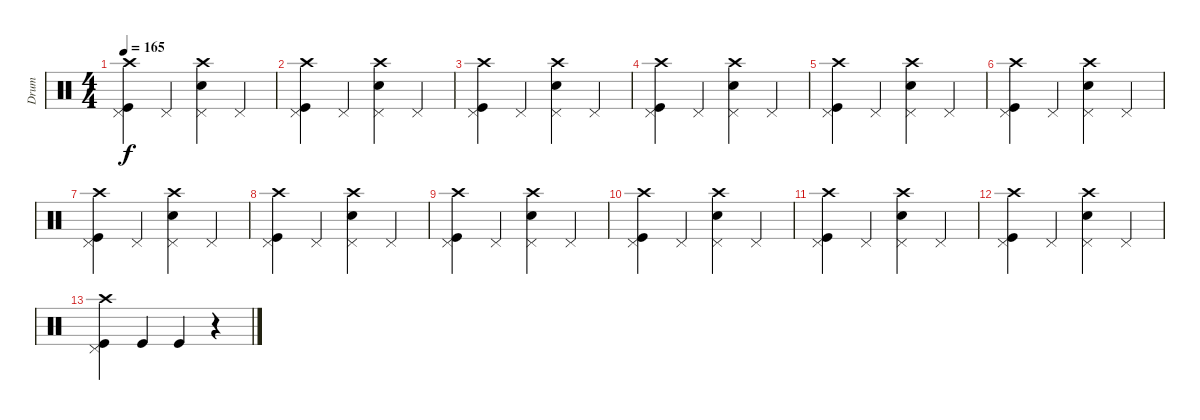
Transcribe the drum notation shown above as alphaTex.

\track ("Drum" "Drum") {instrument percussion}
\staff {score}
\articulation defaults
\ts (4 4)
\tempo 165
\clef neutral
\ks c
("Crash high (hit)" "Pedal Hi-Hat (hit)" "Kick (hit)").4{dy f} "Pedal Hi-Hat (hit)".4 ("Crash high (hit)" "Pedal Hi-Hat (hit)" "Electric Snare (hit)").4 "Pedal Hi-Hat (hit)".4 |
("Crash high (hit)" "Pedal Hi-Hat (hit)" "Kick (hit)").4 "Pedal Hi-Hat (hit)".4 ("Crash high (hit)" "Pedal Hi-Hat (hit)" "Electric Snare (hit)").4 "Pedal Hi-Hat (hit)".4 |
("Crash high (hit)" "Pedal Hi-Hat (hit)" "Kick (hit)").4 "Pedal Hi-Hat (hit)".4 ("Crash high (hit)" "Pedal Hi-Hat (hit)" "Electric Snare (hit)").4 "Pedal Hi-Hat (hit)".4 |
("Crash high (hit)" "Pedal Hi-Hat (hit)" "Kick (hit)").4 "Pedal Hi-Hat (hit)".4 ("Crash high (hit)" "Pedal Hi-Hat (hit)" "Electric Snare (hit)").4 "Pedal Hi-Hat (hit)".4 |
("Crash high (hit)" "Pedal Hi-Hat (hit)" "Kick (hit)").4 "Pedal Hi-Hat (hit)".4 ("Crash high (hit)" "Pedal Hi-Hat (hit)" "Electric Snare (hit)").4 "Pedal Hi-Hat (hit)".4 |
("Crash high (hit)" "Pedal Hi-Hat (hit)" "Kick (hit)").4 "Pedal Hi-Hat (hit)".4 ("Crash high (hit)" "Pedal Hi-Hat (hit)" "Electric Snare (hit)").4 "Pedal Hi-Hat (hit)".4 |
("Crash high (hit)" "Pedal Hi-Hat (hit)" "Kick (hit)").4 "Pedal Hi-Hat (hit)".4 ("Crash high (hit)" "Pedal Hi-Hat (hit)" "Electric Snare (hit)").4 "Pedal Hi-Hat (hit)".4 |
("Crash high (hit)" "Pedal Hi-Hat (hit)" "Kick (hit)").4 "Pedal Hi-Hat (hit)".4 ("Crash high (hit)" "Pedal Hi-Hat (hit)" "Electric Snare (hit)").4 "Pedal Hi-Hat (hit)".4 |
("Crash high (hit)" "Pedal Hi-Hat (hit)" "Kick (hit)").4 "Pedal Hi-Hat (hit)".4 ("Crash high (hit)" "Pedal Hi-Hat (hit)" "Electric Snare (hit)").4 "Pedal Hi-Hat (hit)".4 |
("Crash high (hit)" "Pedal Hi-Hat (hit)" "Kick (hit)").4 "Pedal Hi-Hat (hit)".4 ("Crash high (hit)" "Pedal Hi-Hat (hit)" "Electric Snare (hit)").4 "Pedal Hi-Hat (hit)".4 |
("Crash high (hit)" "Pedal Hi-Hat (hit)" "Kick (hit)").4 "Pedal Hi-Hat (hit)".4 ("Crash high (hit)" "Pedal Hi-Hat (hit)" "Electric Snare (hit)").4 "Pedal Hi-Hat (hit)".4 |
("Crash high (hit)" "Pedal Hi-Hat (hit)" "Kick (hit)").4 "Pedal Hi-Hat (hit)".4 ("Crash high (hit)" "Pedal Hi-Hat (hit)" "Electric Snare (hit)").4 "Pedal Hi-Hat (hit)".4 |
("Crash high (hit)" "Pedal Hi-Hat (hit)" "Kick (hit)").4 "Kick (hit)".4 "Kick (hit)".4 r.4
